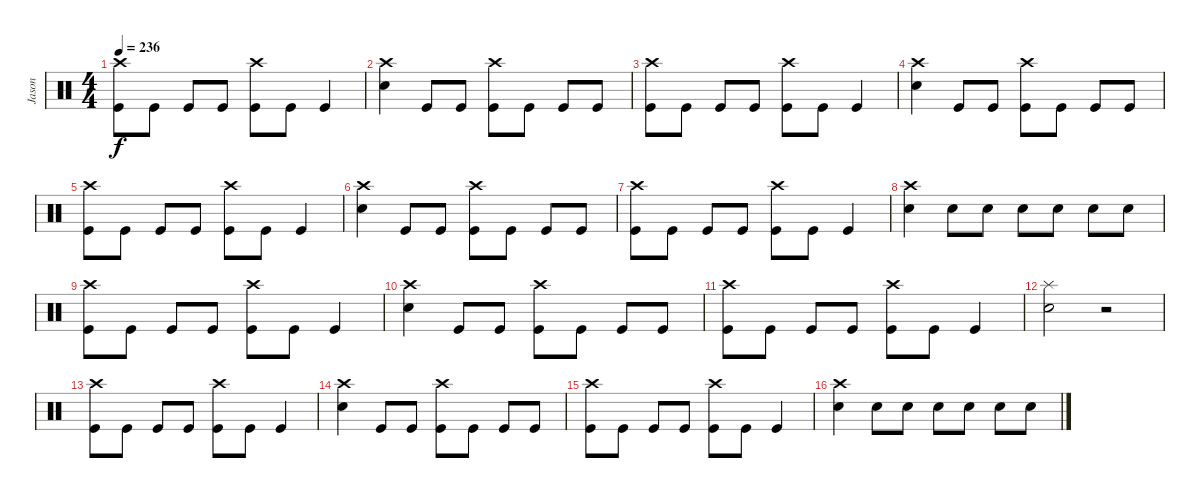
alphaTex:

\track ("Jason" "Jason") {instrument percussion}
\staff {score}
\articulation defaults
\ts (4 4)
\tempo 236
\clef neutral
\ks c
("Crash high (hit)" "Kick (hit)").8{dy f} "Kick (hit)".8 "Kick (hit)".8 "Kick (hit)".8 ("Crash high (hit)" "Kick (hit)").8 "Kick (hit)".8 "Kick (hit)".4 |
("Crash high (hit)" "Electric Snare (hit)").4 "Kick (hit)".8 "Kick (hit)".8 ("Crash high (hit)" "Kick (hit)").8 "Kick (hit)".8 "Kick (hit)".8 "Kick (hit)".8 |
("Crash high (hit)" "Kick (hit)").8 "Kick (hit)".8 "Kick (hit)".8 "Kick (hit)".8 ("Crash high (hit)" "Kick (hit)").8 "Kick (hit)".8 "Kick (hit)".4 |
("Crash high (hit)" "Electric Snare (hit)").4 "Kick (hit)".8 "Kick (hit)".8 ("Crash high (hit)" "Kick (hit)").8 "Kick (hit)".8 "Kick (hit)".8 "Kick (hit)".8 |
("Crash high (hit)" "Kick (hit)").8 "Kick (hit)".8 "Kick (hit)".8 "Kick (hit)".8 ("Crash high (hit)" "Kick (hit)").8 "Kick (hit)".8 "Kick (hit)".4 |
("Crash high (hit)" "Electric Snare (hit)").4 "Kick (hit)".8 "Kick (hit)".8 ("Crash high (hit)" "Kick (hit)").8 "Kick (hit)".8 "Kick (hit)".8 "Kick (hit)".8 |
("Crash high (hit)" "Kick (hit)").8 "Kick (hit)".8 "Kick (hit)".8 "Kick (hit)".8 ("Crash high (hit)" "Kick (hit)").8 "Kick (hit)".8 "Kick (hit)".4 |
("Crash high (hit)" "Electric Snare (hit)").4 "Electric Snare (hit)".8 "Electric Snare (hit)".8 "Electric Snare (hit)".8 "Electric Snare (hit)".8 "Electric Snare (hit)".8 "Electric Snare (hit)".8 |
("Crash high (hit)" "Kick (hit)").8 "Kick (hit)".8 "Kick (hit)".8 "Kick (hit)".8 ("Crash high (hit)" "Kick (hit)").8 "Kick (hit)".8 "Kick (hit)".4 |
("Crash high (hit)" "Electric Snare (hit)").4 "Kick (hit)".8 "Kick (hit)".8 ("Crash high (hit)" "Kick (hit)").8 "Kick (hit)".8 "Kick (hit)".8 "Kick (hit)".8 |
("Crash high (hit)" "Kick (hit)").8 "Kick (hit)".8 "Kick (hit)".8 "Kick (hit)".8 ("Crash high (hit)" "Kick (hit)").8 "Kick (hit)".8 "Kick (hit)".4 |
("Splash (hit)" "Electric Snare (hit)").2 r.2 |
("Crash high (hit)" "Kick (hit)").8 "Kick (hit)".8 "Kick (hit)".8 "Kick (hit)".8 ("Crash high (hit)" "Kick (hit)").8 "Kick (hit)".8 "Kick (hit)".4 |
("Crash high (hit)" "Electric Snare (hit)").4 "Kick (hit)".8 "Kick (hit)".8 ("Crash high (hit)" "Kick (hit)").8 "Kick (hit)".8 "Kick (hit)".8 "Kick (hit)".8 |
("Crash high (hit)" "Kick (hit)").8 "Kick (hit)".8 "Kick (hit)".8 "Kick (hit)".8 ("Crash high (hit)" "Kick (hit)").8 "Kick (hit)".8 "Kick (hit)".4 |
("Crash high (hit)" "Electric Snare (hit)").4 "Electric Snare (hit)".8 "Electric Snare (hit)".8 "Electric Snare (hit)".8 "Electric Snare (hit)".8 "Electric Snare (hit)".8 "Electric Snare (hit)".8
